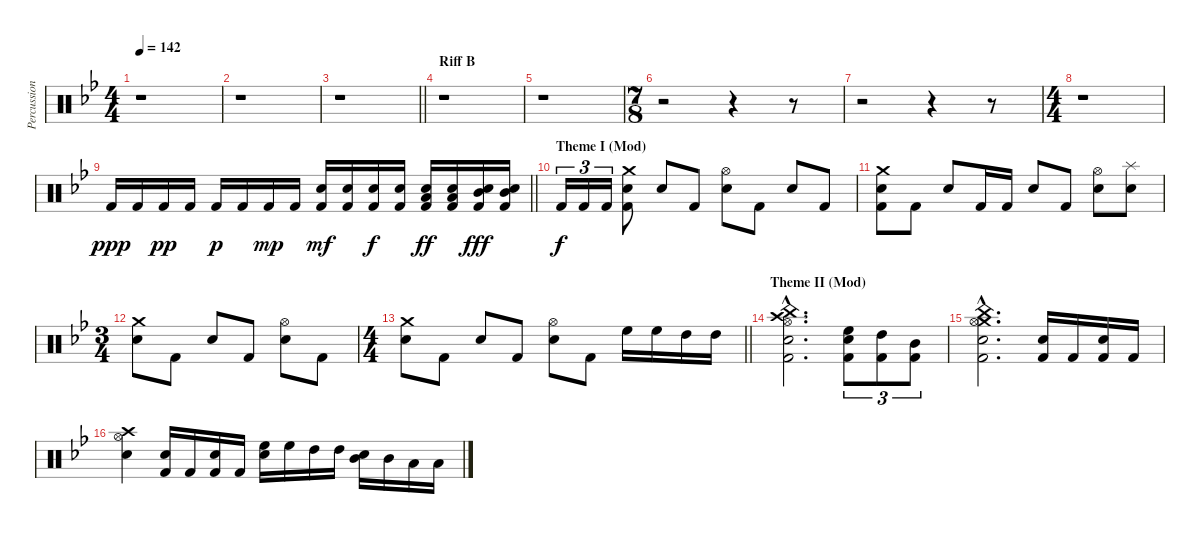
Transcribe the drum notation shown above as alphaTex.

\track ("Percussion" "Percussion") {instrument percussion}
\staff {score}
\articulation defaults
\ts (4 4)
\tempo 142
\clef neutral
\ks gminor
r.1{dy f} |
r.1 |
\barLineRight lightlight
r.1 |
\section ("" "Riff B")
r.1 |
r.1 |
\ts (7 8)
r.2 r.4 r.8 |
r.2 r.4 r.8 |
\ts (4 4)
r.1 |
\barLineRight lightlight "Kick (hit) 2".16{dy ppp} "Kick (hit) 2".16 "Kick (hit) 2".16{dy pp} "Kick (hit) 2".16 "Kick (hit) 2".16{dy p} "Kick (hit) 2".16 "Kick (hit) 2".16{dy mp} "Kick (hit) 2".16
("Snare (hit) 2" "Kick (hit) 2").16{dy mf} ("Snare (hit) 2" "Kick (hit) 2").16 ("Snare (hit) 2" "Kick (hit) 2").16{dy f} ("Snare (hit) 2" "Kick (hit) 2").16 ("Low Tom (hit)" "Snare (hit) 2" "Kick (hit) 2").16{dy ff} ("Low Tom (hit)" "Snare (hit) 2" "Kick (hit) 2").16 ("Mid Tom (hit)" "Snare (hit) 2" "Kick (hit) 2").16{dy fff} ("Mid Tom (hit)" "Snare (hit) 2" "Kick (hit) 2").16 |
\section ("" "Theme I (Mod)")
"Kick (hit) 2".16{tu (3 2) dy f} "Kick (hit) 2".16{tu (3 2)} "Kick (hit) 2".16{tu (3 2)} ("Crash medium (hit)" "Snare (hit) 2" "Kick (hit) 2").8 "Snare (hit) 2".8 "Kick (hit) 2".8 ("Hi-Hat (open)" "Snare (hit) 2").8 "Kick (hit) 2".8 "Snare (hit) 2".8 "Kick (hit) 2".8 |
("Crash medium (hit)" "Snare (hit) 2" "Kick (hit) 2").8 "Kick (hit) 2".8 "Snare (hit) 2".8 "Kick (hit) 2".16 "Kick (hit) 2".16 "Snare (hit) 2".8 "Kick (hit) 2".8 ("Hi-Hat (open)" "Snare (hit) 2").8 ("Splash (hit)" "Snare (hit) 2").8 |
\ts (3 4)
("Crash medium (hit)" "Snare (hit) 2").8 "Kick (hit) 2".8 "Snare (hit) 2".8 "Kick (hit) 2".8 ("Hi-Hat (open)" "Snare (hit) 2").8 "Kick (hit) 2".8 |
\ts (4 4)
\barLineRight lightlight
("Crash medium (hit)" "Snare (hit) 2").8 "Kick (hit) 2".8 "Snare (hit) 2".8 "Kick (hit) 2".8 ("Hi-Hat (open)" "Snare (hit) 2").8 "Kick (hit) 2".8 "High Floor Tom (hit)".16 "High Floor Tom (hit)".16 "High Tom (hit)".16 "High Tom (hit)".16 |
\section ("" "Theme II (Mod)")
("Crash high (hit)"{hac} "China (hit)"{hac} "Hi-Hat (open)"{hac} "Snare (hit) 2"{hac} "Kick (hit) 2"{hac}).2{d} ("High Floor Tom (hit)" "Snare (hit) 2" "Kick (hit) 2").8{tu (3 2)} ("High Tom (hit)" "Kick (hit) 2").8{tu (3 2)} ("Mid Tom (hit)" "Kick (hit) 2").8{tu (3 2)} |
("Crash medium (hit)"{hac} "China (hit)"{hac} "Hi-Hat (open)"{hac} "Snare (hit) 2"{hac} "Kick (hit) 2"{hac}).2{d} ("Snare (hit) 2" "Kick (hit) 2").16 "Kick (hit) 2".16 ("Snare (hit) 2" "Kick (hit) 2").16 "Kick (hit) 2".16 |
("Crash high (hit)" "Hi-Hat (open)" "Snare (hit) 2").4 ("Snare (hit) 2" "Kick (hit) 2").16 "Kick (hit) 2".16 ("Snare (hit) 2" "Kick (hit) 2").16 "Kick (hit) 2".16 ("High Floor Tom (hit)" "Snare (hit) 2").16 "High Floor Tom (hit)".16 "High Tom (hit)".16 "High Tom (hit)".16 ("Mid Tom (hit)" "Snare (hit) 2").16 "Mid Tom (hit)".16 "Low Tom (hit)".16 "Low Tom (hit)".16
